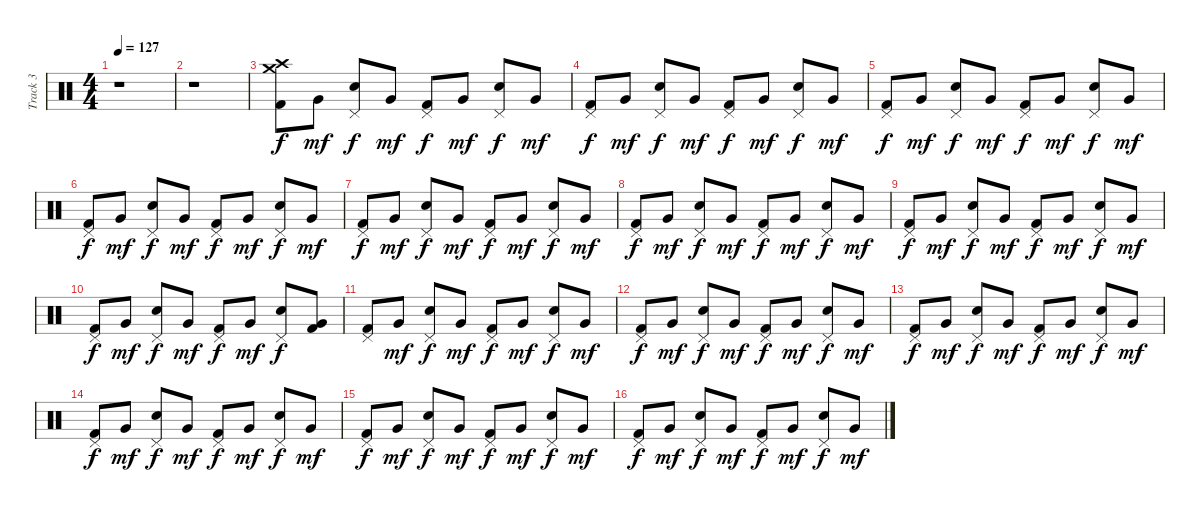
\track ("Track 3" "Track 3") {instrument percussion}
\staff {score}
\articulation defaults
\ts (4 4)
\tempo 127
\clef neutral
\ks c
r.1{dy f} |
r.1 |
("Crash high (hit)" "Crash medium (hit)" "Kick (hit) 2").8 "Very Low Tom (hit)".8{dy mf} ("Pedal Hi-Hat (hit)" "Electric Snare (hit)").8{dy f} "Very Low Tom (hit)".8{dy mf} ("Pedal Hi-Hat (hit)" "Kick (hit) 2").8{dy f} "Very Low Tom (hit)".8{dy mf} ("Pedal Hi-Hat (hit)" "Electric Snare (hit)").8{dy f} "Very Low Tom (hit)".8{dy mf} |
("Pedal Hi-Hat (hit)" "Kick (hit) 2").8{dy f} "Very Low Tom (hit)".8{dy mf} ("Pedal Hi-Hat (hit)" "Electric Snare (hit)").8{dy f} "Very Low Tom (hit)".8{dy mf} ("Pedal Hi-Hat (hit)" "Kick (hit) 2").8{dy f} "Very Low Tom (hit)".8{dy mf} ("Pedal Hi-Hat (hit)" "Electric Snare (hit)").8{dy f} "Very Low Tom (hit)".8{dy mf} |
("Pedal Hi-Hat (hit)" "Kick (hit) 2").8{dy f} "Very Low Tom (hit)".8{dy mf} ("Pedal Hi-Hat (hit)" "Electric Snare (hit)").8{dy f} "Very Low Tom (hit)".8{dy mf} ("Pedal Hi-Hat (hit)" "Kick (hit) 2").8{dy f} "Very Low Tom (hit)".8{dy mf} ("Pedal Hi-Hat (hit)" "Electric Snare (hit)").8{dy f} "Very Low Tom (hit)".8{dy mf} |
("Pedal Hi-Hat (hit)" "Kick (hit) 2").8{dy f} "Very Low Tom (hit)".8{dy mf} ("Pedal Hi-Hat (hit)" "Electric Snare (hit)").8{dy f} "Very Low Tom (hit)".8{dy mf} ("Pedal Hi-Hat (hit)" "Kick (hit) 2").8{dy f} "Very Low Tom (hit)".8{dy mf} ("Pedal Hi-Hat (hit)" "Electric Snare (hit)").8{dy f} "Very Low Tom (hit)".8{dy mf} |
("Pedal Hi-Hat (hit)" "Kick (hit) 2").8{dy f} "Very Low Tom (hit)".8{dy mf} ("Pedal Hi-Hat (hit)" "Electric Snare (hit)").8{dy f} "Very Low Tom (hit)".8{dy mf} ("Pedal Hi-Hat (hit)" "Kick (hit) 2").8{dy f} "Very Low Tom (hit)".8{dy mf} ("Pedal Hi-Hat (hit)" "Electric Snare (hit)").8{dy f} "Very Low Tom (hit)".8{dy mf} |
("Pedal Hi-Hat (hit)" "Kick (hit) 2").8{dy f} "Very Low Tom (hit)".8{dy mf} ("Pedal Hi-Hat (hit)" "Electric Snare (hit)").8{dy f} "Very Low Tom (hit)".8{dy mf} ("Pedal Hi-Hat (hit)" "Kick (hit) 2").8{dy f} "Very Low Tom (hit)".8{dy mf} ("Pedal Hi-Hat (hit)" "Electric Snare (hit)").8{dy f} "Very Low Tom (hit)".8{dy mf} |
("Pedal Hi-Hat (hit)" "Kick (hit) 2").8{dy f} "Very Low Tom (hit)".8{dy mf} ("Pedal Hi-Hat (hit)" "Electric Snare (hit)").8{dy f} "Very Low Tom (hit)".8{dy mf} ("Pedal Hi-Hat (hit)" "Kick (hit) 2").8{dy f} "Very Low Tom (hit)".8{dy mf} ("Pedal Hi-Hat (hit)" "Electric Snare (hit)").8{dy f} "Very Low Tom (hit)".8{dy mf} |
("Pedal Hi-Hat (hit)" "Kick (hit) 2").8{dy f} "Very Low Tom (hit)".8{dy mf} ("Pedal Hi-Hat (hit)" "Electric Snare (hit)").8{dy f} "Very Low Tom (hit)".8{dy mf} ("Pedal Hi-Hat (hit)" "Kick (hit) 2").8{dy f} "Very Low Tom (hit)".8{dy mf} ("Pedal Hi-Hat (hit)" "Electric Snare (hit)").8{dy f} ("Very Low Tom (hit)" "Kick (hit) 2").8 |
("Pedal Hi-Hat (hit)" "Kick (hit) 2").8 "Very Low Tom (hit)".8{dy mf} ("Pedal Hi-Hat (hit)" "Electric Snare (hit)").8{dy f} "Very Low Tom (hit)".8{dy mf} ("Pedal Hi-Hat (hit)" "Kick (hit) 2").8{dy f} "Very Low Tom (hit)".8{dy mf} ("Pedal Hi-Hat (hit)" "Electric Snare (hit)").8{dy f} "Very Low Tom (hit)".8{dy mf} |
("Pedal Hi-Hat (hit)" "Kick (hit) 2").8{dy f} "Very Low Tom (hit)".8{dy mf} ("Pedal Hi-Hat (hit)" "Electric Snare (hit)").8{dy f} "Very Low Tom (hit)".8{dy mf} ("Pedal Hi-Hat (hit)" "Kick (hit) 2").8{dy f} "Very Low Tom (hit)".8{dy mf} ("Pedal Hi-Hat (hit)" "Electric Snare (hit)").8{dy f} "Very Low Tom (hit)".8{dy mf} |
("Pedal Hi-Hat (hit)" "Kick (hit) 2").8{dy f} "Very Low Tom (hit)".8{dy mf} ("Pedal Hi-Hat (hit)" "Electric Snare (hit)").8{dy f} "Very Low Tom (hit)".8{dy mf} ("Pedal Hi-Hat (hit)" "Kick (hit) 2").8{dy f} "Very Low Tom (hit)".8{dy mf} ("Pedal Hi-Hat (hit)" "Electric Snare (hit)").8{dy f} "Very Low Tom (hit)".8{dy mf} |
("Pedal Hi-Hat (hit)" "Kick (hit) 2").8{dy f} "Very Low Tom (hit)".8{dy mf} ("Pedal Hi-Hat (hit)" "Electric Snare (hit)").8{dy f} "Very Low Tom (hit)".8{dy mf} ("Pedal Hi-Hat (hit)" "Kick (hit) 2").8{dy f} "Very Low Tom (hit)".8{dy mf} ("Pedal Hi-Hat (hit)" "Electric Snare (hit)").8{dy f} "Very Low Tom (hit)".8{dy mf} |
("Pedal Hi-Hat (hit)" "Kick (hit) 2").8{dy f} "Very Low Tom (hit)".8{dy mf} ("Pedal Hi-Hat (hit)" "Electric Snare (hit)").8{dy f} "Very Low Tom (hit)".8{dy mf} ("Pedal Hi-Hat (hit)" "Kick (hit) 2").8{dy f} "Very Low Tom (hit)".8{dy mf} ("Pedal Hi-Hat (hit)" "Electric Snare (hit)").8{dy f} "Very Low Tom (hit)".8{dy mf} |
("Pedal Hi-Hat (hit)" "Kick (hit) 2").8{dy f} "Very Low Tom (hit)".8{dy mf} ("Pedal Hi-Hat (hit)" "Electric Snare (hit)").8{dy f} "Very Low Tom (hit)".8{dy mf} ("Pedal Hi-Hat (hit)" "Kick (hit) 2").8{dy f} "Very Low Tom (hit)".8{dy mf} ("Pedal Hi-Hat (hit)" "Electric Snare (hit)").8{dy f} "Very Low Tom (hit)".8{dy mf}
